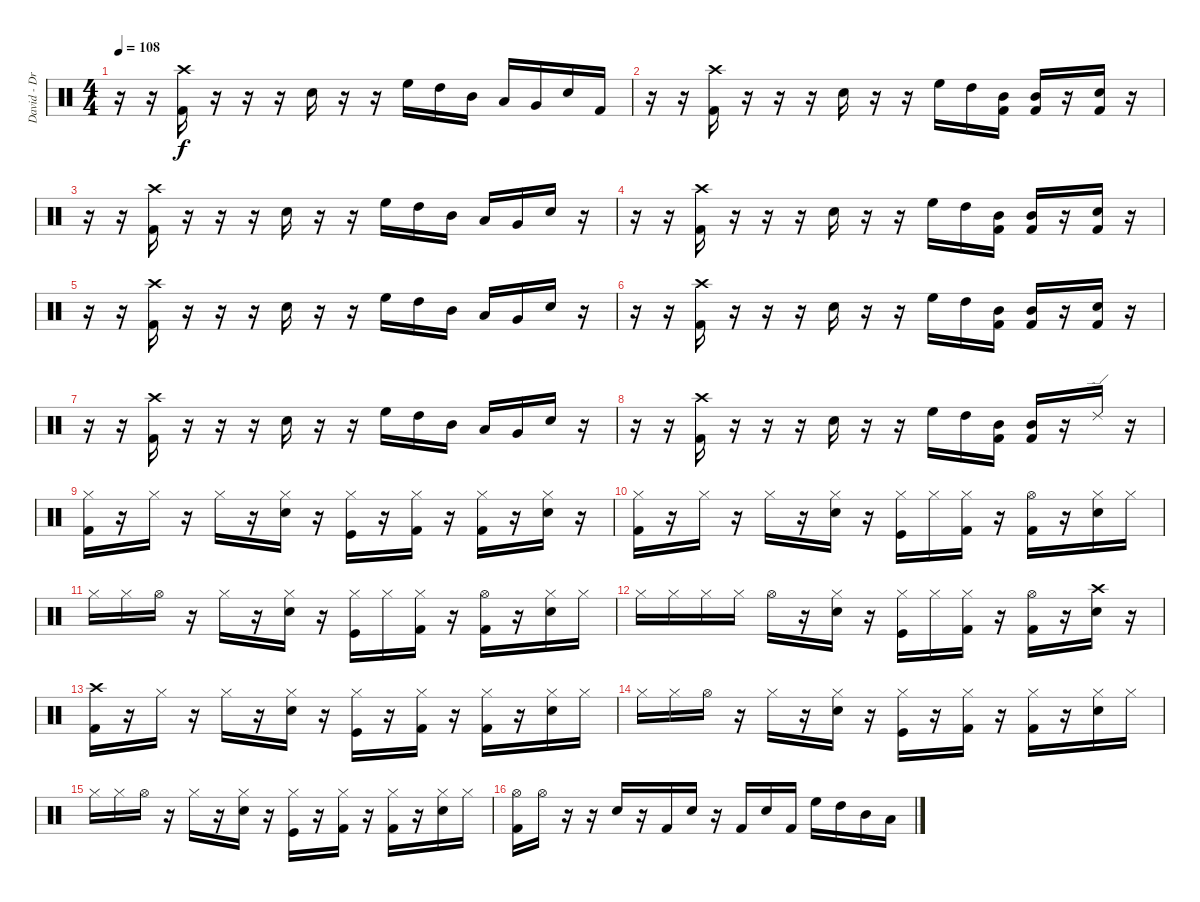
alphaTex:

\track ("David - Drums" "David - Dr") {instrument percussion}
\staff {score}
\articulation defaults
\ts (4 4)
\tempo 108
\clef neutral
\ks c
r.16{dy f} r.16 ("Crash high (hit)" "Kick (hit) 2").16 r.16 r.16 r.16 "Snare (hit) 2".16 r.16 r.16 "High Floor Tom (hit)".16 "High Tom (hit)".16 "Mid Tom (hit)".16 "Low Tom (hit)".16 "Very Low Tom (hit)".16 "Electric Snare (hit)".16 "Kick (hit) 2".16 |
r.16 r.16 ("Crash high (hit)" "Kick (hit) 2").16 r.16 r.16 r.16 "Snare (hit) 2".16 r.16 r.16 "High Floor Tom (hit)".16 "High Tom (hit)".16 ("Mid Tom (hit)" "Kick (hit) 2").16 ("Mid Tom (hit)" "Kick (hit) 2").16 r.16 ("Electric Snare (hit)" "Kick (hit) 2").16 r.16 |
r.16 r.16 ("Crash high (hit)" "Kick (hit) 2").16 r.16 r.16 r.16 "Snare (hit) 2".16 r.16 r.16 "High Floor Tom (hit)".16 "High Tom (hit)".16 "Mid Tom (hit)".16 "Low Tom (hit)".16 "Very Low Tom (hit)".16 "Electric Snare (hit)".16 r.16 |
r.16 r.16 ("Crash high (hit)" "Kick (hit) 2").16 r.16 r.16 r.16 "Snare (hit) 2".16 r.16 r.16 "High Floor Tom (hit)".16 "High Tom (hit)".16 ("Mid Tom (hit)" "Kick (hit) 2").16 ("Mid Tom (hit)" "Kick (hit) 2").16 r.16 ("Electric Snare (hit)" "Kick (hit) 2").16 r.16 |
r.16 r.16 ("Crash high (hit)" "Kick (hit) 2").16 r.16 r.16 r.16 "Snare (hit) 2".16 r.16 r.16 "High Floor Tom (hit)".16 "High Tom (hit)".16 "Mid Tom (hit)".16 "Low Tom (hit)".16 "Very Low Tom (hit)".16 "Electric Snare (hit)".16 r.16 |
r.16 r.16 ("Crash high (hit)" "Kick (hit) 2").16 r.16 r.16 r.16 "Snare (hit) 2".16 r.16 r.16 "High Floor Tom (hit)".16 "High Tom (hit)".16 ("Mid Tom (hit)" "Kick (hit) 2").16 ("Mid Tom (hit)" "Kick (hit) 2").16 r.16 ("Electric Snare (hit)" "Kick (hit) 2").16 r.16 |
r.16 r.16 ("Crash high (hit)" "Kick (hit) 2").16 r.16 r.16 r.16 "Snare (hit) 2".16 r.16 r.16 "High Floor Tom (hit)".16 "High Tom (hit)".16 "Mid Tom (hit)".16 "Low Tom (hit)".16 "Very Low Tom (hit)".16 "Electric Snare (hit)".16 r.16 |
r.16 r.16 ("Crash high (hit)" "Kick (hit) 2").16 r.16 r.16 r.16 "Snare (hit) 2".16 r.16 r.16 "High Floor Tom (hit)".16 "High Tom (hit)".16 ("Mid Tom (hit)" "Kick (hit) 2").16 ("Mid Tom (hit)" "Kick (hit) 2").16 r.16 "Ride (edge) 2".16 r.16 |
("Hi-Hat (closed)" "Kick (hit) 2").16 r.16 "Hi-Hat (closed)".16 r.16 "Hi-Hat (closed)".16 r.16 ("Hi-Hat (closed)" "Snare (hit) 2").16 r.16 ("Hi-Hat (closed)" "Kick (hit)").16 r.16 ("Hi-Hat (closed)" "Kick (hit) 2").16 r.16 ("Hi-Hat (closed)" "Kick (hit) 2").16 r.16 ("Hi-Hat (closed)" "Snare (hit) 2").16 r.16 |
("Hi-Hat (closed)" "Kick (hit) 2").16 r.16 "Hi-Hat (closed)".16 r.16 "Hi-Hat (closed)".16 r.16 ("Hi-Hat (closed)" "Snare (hit) 2").16 r.16 ("Hi-Hat (closed)" "Kick (hit)").16 "Hi-Hat (closed)".16 ("Hi-Hat (closed)" "Kick (hit) 2").16 r.16 ("Hi-Hat (open)" "Kick (hit) 2").16 r.16 ("Hi-Hat (closed)" "Snare (hit) 2").16 "Hi-Hat (closed)".16 |
"Hi-Hat (closed)".16 "Hi-Hat (closed)".16 "Hi-Hat (open)".16 r.16 "Hi-Hat (closed)".16 r.16 ("Hi-Hat (closed)" "Snare (hit) 2").16 r.16 ("Hi-Hat (closed)" "Kick (hit)").16 "Hi-Hat (closed)".16 ("Hi-Hat (closed)" "Kick (hit) 2").16 r.16 ("Hi-Hat (open)" "Kick (hit) 2").16 r.16 ("Hi-Hat (closed)" "Snare (hit) 2").16 "Hi-Hat (closed)".16 |
"Hi-Hat (closed)".16 "Hi-Hat (closed)".16 "Hi-Hat (closed)".16 "Hi-Hat (closed)".16 "Hi-Hat (open)".16 r.16 ("Hi-Hat (closed)" "Snare (hit) 2").16 r.16 ("Hi-Hat (closed)" "Kick (hit)").16 "Hi-Hat (closed)".16 ("Hi-Hat (closed)" "Kick (hit) 2").16 r.16 ("Hi-Hat (open)" "Kick (hit) 2").16 r.16 ("Crash high (hit)" "Snare (hit) 2").16 r.16 |
("Crash high (hit)" "Kick (hit) 2").16 r.16 "Hi-Hat (closed)".16 r.16 "Hi-Hat (closed)".16 r.16 ("Hi-Hat (closed)" "Snare (hit) 2").16 r.16 ("Hi-Hat (closed)" "Kick (hit)").16 r.16 ("Hi-Hat (closed)" "Kick (hit) 2").16 r.16 ("Hi-Hat (closed)" "Kick (hit) 2").16 r.16 ("Hi-Hat (closed)" "Snare (hit) 2").16 "Hi-Hat (closed)".16 |
"Hi-Hat (closed)".16 "Hi-Hat (closed)".16 "Hi-Hat (open)".16 r.16 "Hi-Hat (closed)".16 r.16 ("Hi-Hat (closed)" "Snare (hit) 2").16 r.16 ("Hi-Hat (closed)" "Kick (hit)").16 r.16 ("Hi-Hat (closed)" "Kick (hit) 2").16 r.16 ("Hi-Hat (closed)" "Kick (hit) 2").16 r.16 ("Hi-Hat (closed)" "Snare (hit) 2").16 "Hi-Hat (closed)".16 |
"Hi-Hat (closed)".16 "Hi-Hat (closed)".16 "Hi-Hat (open)".16 r.16 "Hi-Hat (closed)".16 r.16 ("Hi-Hat (closed)" "Snare (hit) 2").16 r.16 ("Hi-Hat (closed)" "Kick (hit)").16 r.16 ("Hi-Hat (closed)" "Kick (hit) 2").16 r.16 ("Hi-Hat (closed)" "Kick (hit) 2").16 r.16 ("Hi-Hat (closed)" "Snare (hit) 2").16 "Hi-Hat (closed)".16 |
("Hi-Hat (open)" "Kick (hit) 2").16 "Hi-Hat (open)".16 r.16 r.16 "Snare (hit) 2".16 r.16 "Kick (hit) 2".16 "Snare (hit) 2".16 r.16 "Kick (hit) 2".16 "Snare (hit) 2".16 "Kick (hit) 2".16 "High Floor Tom (hit)".16 "High Tom (hit)".16 "Mid Tom (hit)".16 "Low Tom (hit)".16
